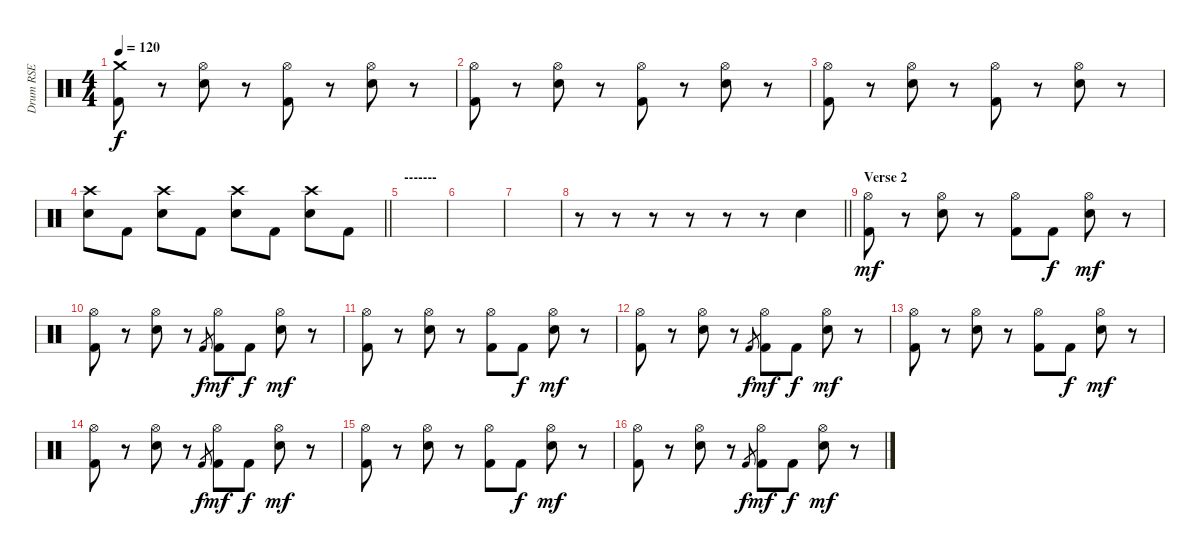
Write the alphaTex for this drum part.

\track ("Drum RSE" "Drum RSE") {instrument percussion}
\staff {score}
\articulation defaults
\ts (4 4)
\tempo 120
\clef neutral
\ks c
("Crash medium (hit)" "Kick (hit) 2").8{dy f} r.8 ("Hi-Hat (open)" "Snare (hit) 2").8 r.8 ("Hi-Hat (open)" "Kick (hit) 2").8 r.8 ("Hi-Hat (open)" "Snare (hit) 2").8 r.8 |
("Hi-Hat (open)" "Kick (hit) 2").8 r.8 ("Hi-Hat (open)" "Snare (hit) 2").8 r.8 ("Hi-Hat (open)" "Kick (hit) 2").8 r.8 ("Hi-Hat (open)" "Snare (hit) 2").8 r.8 |
("Hi-Hat (open)" "Kick (hit) 2").8 r.8 ("Hi-Hat (open)" "Snare (hit) 2").8 r.8 ("Hi-Hat (open)" "Kick (hit) 2").8 r.8 ("Hi-Hat (open)" "Snare (hit) 2").8 r.8 |
\barLineRight lightlight
("Crash high (hit)" "Snare (hit) 2").8 "Kick (hit) 2".8 ("Crash high (hit)" "Snare (hit) 2").8 "Kick (hit) 2".8 ("Crash high (hit)" "Snare (hit) 2").8 "Kick (hit) 2".8 ("Crash high (hit)" "Snare (hit) 2").8 "Kick (hit) 2".8 |
\section ("" "-------")
|
|
|
\barLineRight lightlight
r.8 r.8 r.8 r.8 r.8 r.8 "Snare (hit) 2".4 |
\section ("" "Verse 2")
("Hi-Hat (open)" "Kick (hit) 2").8{dy mf} r.8 ("Hi-Hat (open)" "Snare (hit) 2").8 r.8 ("Hi-Hat (open)" "Kick (hit) 2").8 "Kick (hit) 2".8{dy f} ("Hi-Hat (open)" "Snare (hit) 2").8{dy mf} r.8 |
("Hi-Hat (open)" "Kick (hit) 2").8 r.8 ("Hi-Hat (open)" "Snare (hit) 2").8 r.8 "Kick (hit) 2".8{gr dy f} ("Hi-Hat (open)" "Kick (hit) 2").8{dy mf} "Kick (hit) 2".8{dy f} ("Hi-Hat (open)" "Snare (hit) 2").8{dy mf} r.8 |
("Hi-Hat (open)" "Kick (hit) 2").8 r.8 ("Hi-Hat (open)" "Snare (hit) 2").8 r.8 ("Hi-Hat (open)" "Kick (hit) 2").8 "Kick (hit) 2".8{dy f} ("Hi-Hat (open)" "Snare (hit) 2").8{dy mf} r.8 |
("Hi-Hat (open)" "Kick (hit) 2").8 r.8 ("Hi-Hat (open)" "Snare (hit) 2").8 r.8 "Kick (hit) 2".8{gr dy f} ("Hi-Hat (open)" "Kick (hit) 2").8{dy mf} "Kick (hit) 2".8{dy f} ("Hi-Hat (open)" "Snare (hit) 2").8{dy mf} r.8 |
("Hi-Hat (open)" "Kick (hit) 2").8 r.8 ("Hi-Hat (open)" "Snare (hit) 2").8 r.8 ("Hi-Hat (open)" "Kick (hit) 2").8 "Kick (hit) 2".8{dy f} ("Hi-Hat (open)" "Snare (hit) 2").8{dy mf} r.8 |
("Hi-Hat (open)" "Kick (hit) 2").8 r.8 ("Hi-Hat (open)" "Snare (hit) 2").8 r.8 "Kick (hit) 2".8{gr dy f} ("Hi-Hat (open)" "Kick (hit) 2").8{dy mf} "Kick (hit) 2".8{dy f} ("Hi-Hat (open)" "Snare (hit) 2").8{dy mf} r.8 |
("Hi-Hat (open)" "Kick (hit) 2").8 r.8 ("Hi-Hat (open)" "Snare (hit) 2").8 r.8 ("Hi-Hat (open)" "Kick (hit) 2").8 "Kick (hit) 2".8{dy f} ("Hi-Hat (open)" "Snare (hit) 2").8{dy mf} r.8 |
("Hi-Hat (open)" "Kick (hit) 2").8 r.8 ("Hi-Hat (open)" "Snare (hit) 2").8 r.8 "Kick (hit) 2".8{gr dy f} ("Hi-Hat (open)" "Kick (hit) 2").8{dy mf} "Kick (hit) 2".8{dy f} ("Hi-Hat (open)" "Snare (hit) 2").8{dy mf} r.8
